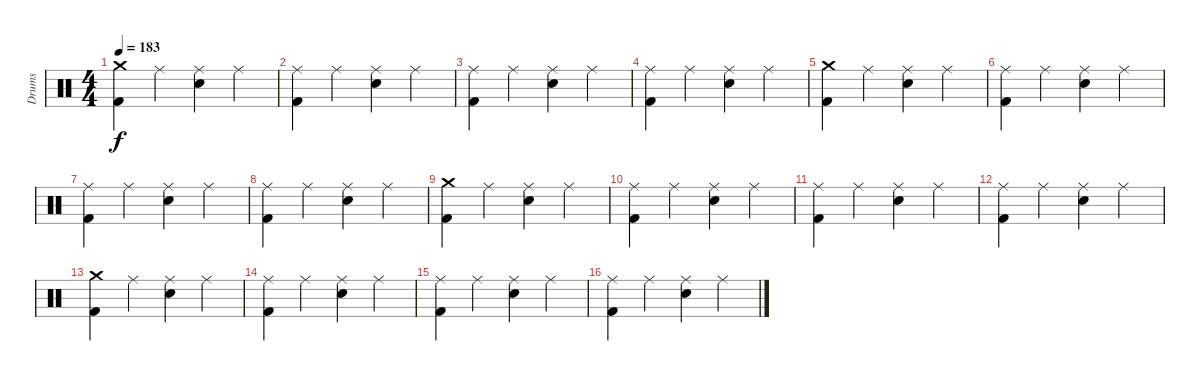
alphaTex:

\track ("Drums" "Drums") {instrument percussion}
\staff {score}
\articulation defaults
\ts (4 4)
\tempo 183
\clef neutral
\ks c
("Crash medium (hit)" "Kick (hit) 2").4{dy f} "Ride (middle)".4 ("Ride (middle)" "Electric Snare (hit)").4 "Ride (middle)".4 |
("Ride (middle)" "Kick (hit) 2").4 "Ride (middle)".4 ("Ride (middle)" "Electric Snare (hit)").4 "Ride (middle)".4 |
("Ride (middle)" "Kick (hit) 2").4 "Ride (middle)".4 ("Ride (middle)" "Electric Snare (hit)").4 "Ride (middle)".4 |
("Ride (middle)" "Kick (hit) 2").4 "Ride (middle)".4 ("Ride (middle)" "Electric Snare (hit)").4 "Ride (middle)".4 |
("Crash medium (hit)" "Kick (hit) 2").4 "Ride (middle)".4 ("Ride (middle)" "Electric Snare (hit)").4 "Ride (middle)".4 |
("Ride (middle)" "Kick (hit) 2").4 "Ride (middle)".4 ("Ride (middle)" "Electric Snare (hit)").4 "Ride (middle)".4 |
("Ride (middle)" "Kick (hit) 2").4 "Ride (middle)".4 ("Ride (middle)" "Electric Snare (hit)").4 "Ride (middle)".4 |
("Ride (middle)" "Kick (hit) 2").4 "Ride (middle)".4 ("Ride (middle)" "Electric Snare (hit)").4 "Ride (middle)".4 |
("Crash medium (hit)" "Kick (hit) 2").4 "Ride (middle)".4 ("Ride (middle)" "Electric Snare (hit)").4 "Ride (middle)".4 |
("Ride (middle)" "Kick (hit) 2").4 "Ride (middle)".4 ("Ride (middle)" "Electric Snare (hit)").4 "Ride (middle)".4 |
("Ride (middle)" "Kick (hit) 2").4 "Ride (middle)".4 ("Ride (middle)" "Electric Snare (hit)").4 "Ride (middle)".4 |
("Ride (middle)" "Kick (hit) 2").4 "Ride (middle)".4 ("Ride (middle)" "Electric Snare (hit)").4 "Ride (middle)".4 |
("Crash medium (hit)" "Kick (hit) 2").4 "Ride (middle)".4 ("Ride (middle)" "Electric Snare (hit)").4 "Ride (middle)".4 |
("Ride (middle)" "Kick (hit) 2").4 "Ride (middle)".4 ("Ride (middle)" "Electric Snare (hit)").4 "Ride (middle)".4 |
("Ride (middle)" "Kick (hit) 2").4 "Ride (middle)".4 ("Ride (middle)" "Electric Snare (hit)").4 "Ride (middle)".4 |
("Ride (middle)" "Kick (hit) 2").4 "Ride (middle)".4 ("Ride (middle)" "Electric Snare (hit)").4 "Ride (middle)".4
